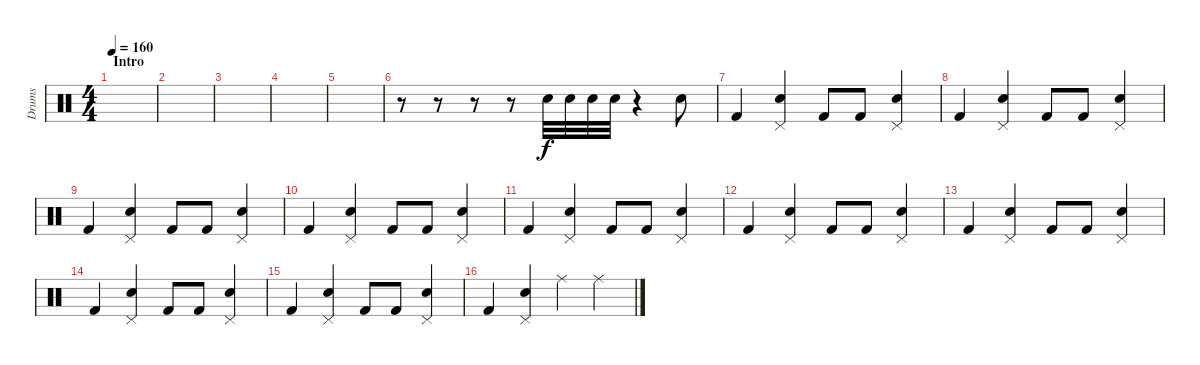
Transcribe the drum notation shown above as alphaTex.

\track ("Drums" "Drums") {instrument percussion}
\staff {score}
\articulation defaults
\ts (4 4)
\section ("" "Intro")
\tempo 160
\clef neutral
\ks c
|
|
|
|
|
r.8 r.8 r.8 r.8 "Snare (hit) 2".32 "Snare (hit) 2".32 "Snare (hit) 2".32 "Snare (hit) 2".32 r.4 "Electric Snare (hit)".8 |
"Kick (hit) 2".4 ("Pedal Hi-Hat (hit)" "Electric Snare (hit)").4 "Kick (hit) 2".8 "Kick (hit) 2".8 ("Pedal Hi-Hat (hit)" "Electric Snare (hit)").4 |
"Kick (hit) 2".4 ("Pedal Hi-Hat (hit)" "Electric Snare (hit)").4 "Kick (hit) 2".8 "Kick (hit) 2".8 ("Pedal Hi-Hat (hit)" "Electric Snare (hit)").4 |
"Kick (hit) 2".4 ("Pedal Hi-Hat (hit)" "Electric Snare (hit)").4 "Kick (hit) 2".8 "Kick (hit) 2".8 ("Pedal Hi-Hat (hit)" "Electric Snare (hit)").4 |
"Kick (hit) 2".4 ("Pedal Hi-Hat (hit)" "Electric Snare (hit)").4 "Kick (hit) 2".8 "Kick (hit) 2".8 ("Pedal Hi-Hat (hit)" "Electric Snare (hit)").4 |
"Kick (hit) 2".4 ("Pedal Hi-Hat (hit)" "Electric Snare (hit)").4 "Kick (hit) 2".8 "Kick (hit) 2".8 ("Pedal Hi-Hat (hit)" "Electric Snare (hit)").4 |
"Kick (hit) 2".4 ("Pedal Hi-Hat (hit)" "Electric Snare (hit)").4 "Kick (hit) 2".8 "Kick (hit) 2".8 ("Pedal Hi-Hat (hit)" "Electric Snare (hit)").4 |
"Kick (hit) 2".4 ("Pedal Hi-Hat (hit)" "Electric Snare (hit)").4 "Kick (hit) 2".8 "Kick (hit) 2".8 ("Pedal Hi-Hat (hit)" "Electric Snare (hit)").4 |
"Kick (hit) 2".4 ("Pedal Hi-Hat (hit)" "Electric Snare (hit)").4 "Kick (hit) 2".8 "Kick (hit) 2".8 ("Pedal Hi-Hat (hit)" "Electric Snare (hit)").4 |
"Kick (hit) 2".4 ("Pedal Hi-Hat (hit)" "Electric Snare (hit)").4 "Kick (hit) 2".8 "Kick (hit) 2".8 ("Pedal Hi-Hat (hit)" "Electric Snare (hit)").4 |
"Kick (hit) 2".4 ("Pedal Hi-Hat (hit)" "Electric Snare (hit)").4 "Ride (middle)".4 "Ride (middle)".4
